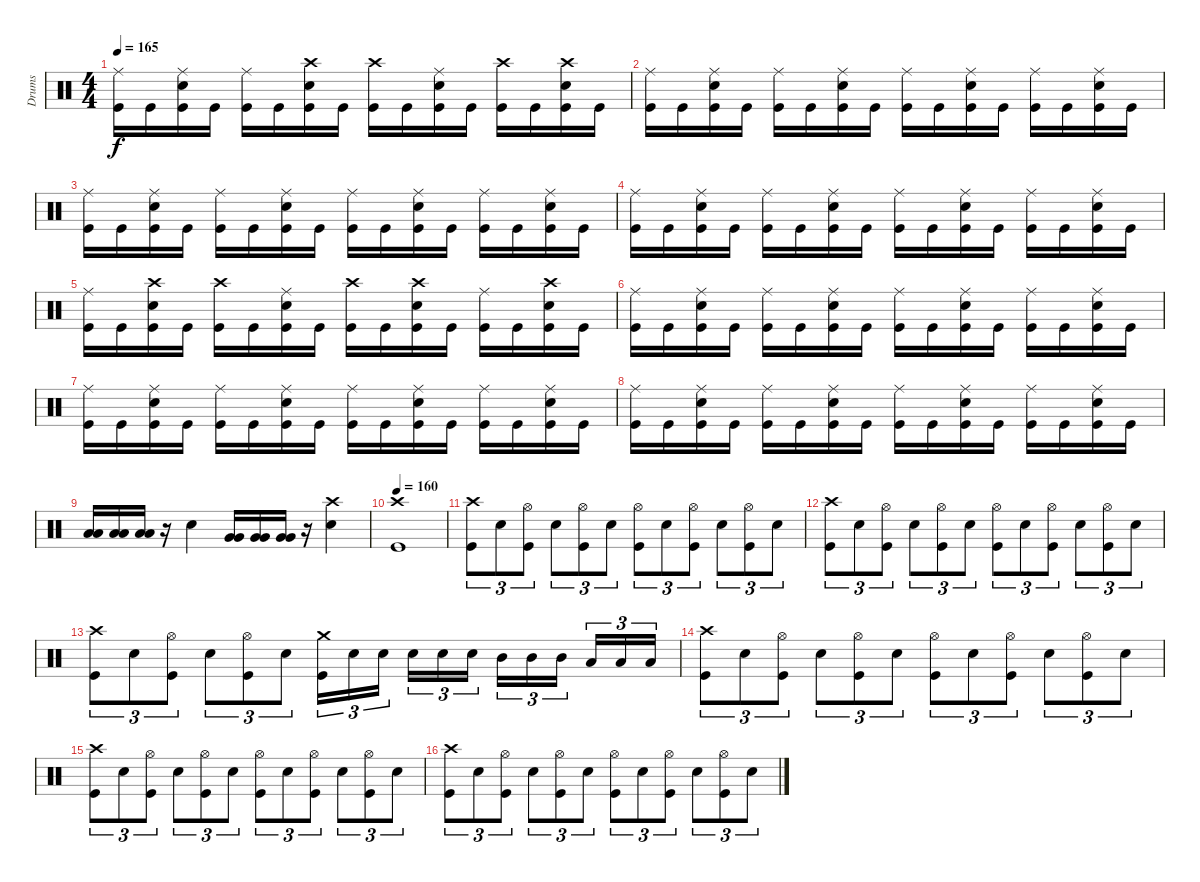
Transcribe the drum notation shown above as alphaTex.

\track ("Drums" "Drums") {instrument percussion}
\staff {score}
\articulation defaults
\ts (4 4)
\tempo 165
\clef neutral
\ks c
("Ride (middle)" "Kick (hit)").16{dy f} "Kick (hit)".16 ("Ride (middle)" "Electric Snare (hit)" "Kick (hit)").16 "Kick (hit)".16 ("Ride (middle)" "Kick (hit)").16 "Kick (hit)".16 ("Crash high (hit)" "Electric Snare (hit)" "Kick (hit)").16 "Kick (hit)".16 ("Crash high (hit)" "Kick (hit)").16 "Kick (hit)".16 ("Ride (middle)" "Electric Snare (hit)" "Kick (hit)").16 "Kick (hit)".16 ("Crash high (hit)" "Kick (hit)").16 "Kick (hit)".16 ("Crash high (hit)" "Electric Snare (hit)" "Kick (hit)").16 "Kick (hit)".16 |
("Ride (middle)" "Kick (hit)").16 "Kick (hit)".16 ("Ride (middle)" "Electric Snare (hit)" "Kick (hit)").16 "Kick (hit)".16 ("Ride (middle)" "Kick (hit)").16 "Kick (hit)".16 ("Ride (middle)" "Electric Snare (hit)" "Kick (hit)").16 "Kick (hit)".16 ("Ride (middle)" "Kick (hit)").16 "Kick (hit)".16 ("Ride (middle)" "Electric Snare (hit)" "Kick (hit)").16 "Kick (hit)".16 ("Ride (middle)" "Kick (hit)").16 "Kick (hit)".16 ("Ride (middle)" "Electric Snare (hit)" "Kick (hit)").16 "Kick (hit)".16 |
("Ride (middle)" "Kick (hit)").16 "Kick (hit)".16 ("Ride (middle)" "Electric Snare (hit)" "Kick (hit)").16 "Kick (hit)".16 ("Ride (middle)" "Kick (hit)").16 "Kick (hit)".16 ("Ride (middle)" "Electric Snare (hit)" "Kick (hit)").16 "Kick (hit)".16 ("Ride (middle)" "Kick (hit)").16 "Kick (hit)".16 ("Ride (middle)" "Electric Snare (hit)" "Kick (hit)").16 "Kick (hit)".16 ("Ride (middle)" "Kick (hit)").16 "Kick (hit)".16 ("Ride (middle)" "Electric Snare (hit)" "Kick (hit)").16 "Kick (hit)".16 |
("Ride (middle)" "Kick (hit)").16 "Kick (hit)".16 ("Ride (middle)" "Electric Snare (hit)" "Kick (hit)").16 "Kick (hit)".16 ("Ride (middle)" "Kick (hit)").16 "Kick (hit)".16 ("Ride (middle)" "Electric Snare (hit)" "Kick (hit)").16 "Kick (hit)".16 ("Ride (middle)" "Kick (hit)").16 "Kick (hit)".16 ("Ride (middle)" "Electric Snare (hit)" "Kick (hit)").16 "Kick (hit)".16 ("Ride (middle)" "Kick (hit)").16 "Kick (hit)".16 ("Ride (middle)" "Electric Snare (hit)" "Kick (hit)").16 "Kick (hit)".16 |
("Ride (middle)" "Kick (hit)").16 "Kick (hit)".16 ("Crash high (hit)" "Electric Snare (hit)" "Kick (hit)").16 "Kick (hit)".16 ("Crash high (hit)" "Kick (hit)").16 "Kick (hit)".16 ("Ride (middle)" "Electric Snare (hit)" "Kick (hit)").16 "Kick (hit)".16 ("Crash high (hit)" "Kick (hit)").16 "Kick (hit)".16 ("Crash high (hit)" "Electric Snare (hit)" "Kick (hit)").16 "Kick (hit)".16 ("Ride (middle)" "Kick (hit)").16 "Kick (hit)".16 ("Crash high (hit)" "Electric Snare (hit)" "Kick (hit)").16 "Kick (hit)".16 |
("Ride (middle)" "Kick (hit)").16 "Kick (hit)".16 ("Ride (middle)" "Electric Snare (hit)" "Kick (hit)").16 "Kick (hit)".16 ("Ride (middle)" "Kick (hit)").16 "Kick (hit)".16 ("Ride (middle)" "Electric Snare (hit)" "Kick (hit)").16 "Kick (hit)".16 ("Ride (middle)" "Kick (hit)").16 "Kick (hit)".16 ("Ride (middle)" "Electric Snare (hit)" "Kick (hit)").16 "Kick (hit)".16 ("Ride (middle)" "Kick (hit)").16 "Kick (hit)".16 ("Ride (middle)" "Electric Snare (hit)" "Kick (hit)").16 "Kick (hit)".16 |
("Ride (middle)" "Kick (hit)").16 "Kick (hit)".16 ("Ride (middle)" "Electric Snare (hit)" "Kick (hit)").16 "Kick (hit)".16 ("Ride (middle)" "Kick (hit)").16 "Kick (hit)".16 ("Ride (middle)" "Electric Snare (hit)" "Kick (hit)").16 "Kick (hit)".16 ("Ride (middle)" "Kick (hit)").16 "Kick (hit)".16 ("Ride (middle)" "Electric Snare (hit)" "Kick (hit)").16 "Kick (hit)".16 ("Ride (middle)" "Kick (hit)").16 "Kick (hit)".16 ("Ride (middle)" "Electric Snare (hit)" "Kick (hit)").16 "Kick (hit)".16 |
("Ride (middle)" "Kick (hit)").16 "Kick (hit)".16 ("Ride (middle)" "Electric Snare (hit)" "Kick (hit)").16 "Kick (hit)".16 ("Ride (middle)" "Kick (hit)").16 "Kick (hit)".16 ("Ride (middle)" "Electric Snare (hit)" "Kick (hit)").16 "Kick (hit)".16 ("Ride (middle)" "Kick (hit)").16 "Kick (hit)".16 ("Ride (middle)" "Electric Snare (hit)" "Kick (hit)").16 "Kick (hit)".16 ("Ride (middle)" "Kick (hit)").16 "Kick (hit)".16 ("Ride (middle)" "Electric Snare (hit)" "Kick (hit)").16 "Kick (hit)".16 |
("Low Tom (hit)" "Low Tom (hit)").16 ("Low Tom (hit)" "Low Tom (hit)").16 ("Low Tom (hit)" "Low Tom (hit)").16 r.16 "Electric Snare (hit)".4 ("Very Low Tom (hit)" "Very Low Tom (hit)").16 ("Very Low Tom (hit)" "Very Low Tom (hit)").16 ("Very Low Tom (hit)" "Very Low Tom (hit)").16 r.16 ("Electric Snare (hit)" "Crash high (hit)").4 |
\tempo 160
("Crash high (hit)" "Kick (hit)").1 |
("Crash high (hit)" "Kick (hit)").8{tu (3 2)} "Electric Snare (hit)".8{tu (3 2)} ("Hi-Hat (open)" "Kick (hit)").8{tu (3 2)} "Electric Snare (hit)".8{tu (3 2)} ("Hi-Hat (open)" "Kick (hit)").8{tu (3 2)} "Electric Snare (hit)".8{tu (3 2)} ("Hi-Hat (open)" "Kick (hit)").8{tu (3 2)} "Electric Snare (hit)".8{tu (3 2)} ("Hi-Hat (open)" "Kick (hit)").8{tu (3 2)} "Electric Snare (hit)".8{tu (3 2)} ("Hi-Hat (open)" "Kick (hit)").8{tu (3 2)} "Electric Snare (hit)".8{tu (3 2)} |
("Crash high (hit)" "Kick (hit)").8{tu (3 2)} "Electric Snare (hit)".8{tu (3 2)} ("Hi-Hat (open)" "Kick (hit)").8{tu (3 2)} "Electric Snare (hit)".8{tu (3 2)} ("Hi-Hat (open)" "Kick (hit)").8{tu (3 2)} "Electric Snare (hit)".8{tu (3 2)} ("Hi-Hat (open)" "Kick (hit)").8{tu (3 2)} "Electric Snare (hit)".8{tu (3 2)} ("Hi-Hat (open)" "Kick (hit)").8{tu (3 2)} "Electric Snare (hit)".8{tu (3 2)} ("Hi-Hat (open)" "Kick (hit)").8{tu (3 2)} "Electric Snare (hit)".8{tu (3 2)} |
("Crash high (hit)" "Kick (hit)").8{tu (3 2)} "Electric Snare (hit)".8{tu (3 2)} ("Hi-Hat (open)" "Kick (hit)").8{tu (3 2)} "Electric Snare (hit)".8{tu (3 2)} ("Hi-Hat (open)" "Kick (hit)").8{tu (3 2)} "Electric Snare (hit)".8{tu (3 2)} ("Crash medium (hit)" "Kick (hit)").16{tu (3 2)} "Electric Snare (hit)".16{tu (3 2)} "Electric Snare (hit)".16{tu (3 2)} "Electric Snare (hit)".16{tu (3 2)} "Electric Snare (hit)".16{tu (3 2)} "Electric Snare (hit)".16{tu (3 2)} "Mid Tom (hit)".16{tu (3 2)} "Mid Tom (hit)".16{tu (3 2)} "Mid Tom (hit)".16{tu (3 2)} "Low Tom (hit)".16{tu (3 2)} "Low Tom (hit)".16{tu (3 2)} "Low Tom (hit)".16{tu (3 2)} |
("Crash high (hit)" "Kick (hit)").8{tu (3 2)} "Electric Snare (hit)".8{tu (3 2)} ("Hi-Hat (open)" "Kick (hit)").8{tu (3 2)} "Electric Snare (hit)".8{tu (3 2)} ("Hi-Hat (open)" "Kick (hit)").8{tu (3 2)} "Electric Snare (hit)".8{tu (3 2)} ("Hi-Hat (open)" "Kick (hit)").8{tu (3 2)} "Electric Snare (hit)".8{tu (3 2)} ("Hi-Hat (open)" "Kick (hit)").8{tu (3 2)} "Electric Snare (hit)".8{tu (3 2)} ("Hi-Hat (open)" "Kick (hit)").8{tu (3 2)} "Electric Snare (hit)".8{tu (3 2)} |
("Crash high (hit)" "Kick (hit)").8{tu (3 2)} "Electric Snare (hit)".8{tu (3 2)} ("Hi-Hat (open)" "Kick (hit)").8{tu (3 2)} "Electric Snare (hit)".8{tu (3 2)} ("Hi-Hat (open)" "Kick (hit)").8{tu (3 2)} "Electric Snare (hit)".8{tu (3 2)} ("Hi-Hat (open)" "Kick (hit)").8{tu (3 2)} "Electric Snare (hit)".8{tu (3 2)} ("Hi-Hat (open)" "Kick (hit)").8{tu (3 2)} "Electric Snare (hit)".8{tu (3 2)} ("Hi-Hat (open)" "Kick (hit)").8{tu (3 2)} "Electric Snare (hit)".8{tu (3 2)} |
("Crash high (hit)" "Kick (hit)").8{tu (3 2)} "Electric Snare (hit)".8{tu (3 2)} ("Hi-Hat (open)" "Kick (hit)").8{tu (3 2)} "Electric Snare (hit)".8{tu (3 2)} ("Hi-Hat (open)" "Kick (hit)").8{tu (3 2)} "Electric Snare (hit)".8{tu (3 2)} ("Hi-Hat (open)" "Kick (hit)").8{tu (3 2)} "Electric Snare (hit)".8{tu (3 2)} ("Hi-Hat (open)" "Kick (hit)").8{tu (3 2)} "Electric Snare (hit)".8{tu (3 2)} ("Hi-Hat (open)" "Kick (hit)").8{tu (3 2)} "Electric Snare (hit)".8{tu (3 2)}
